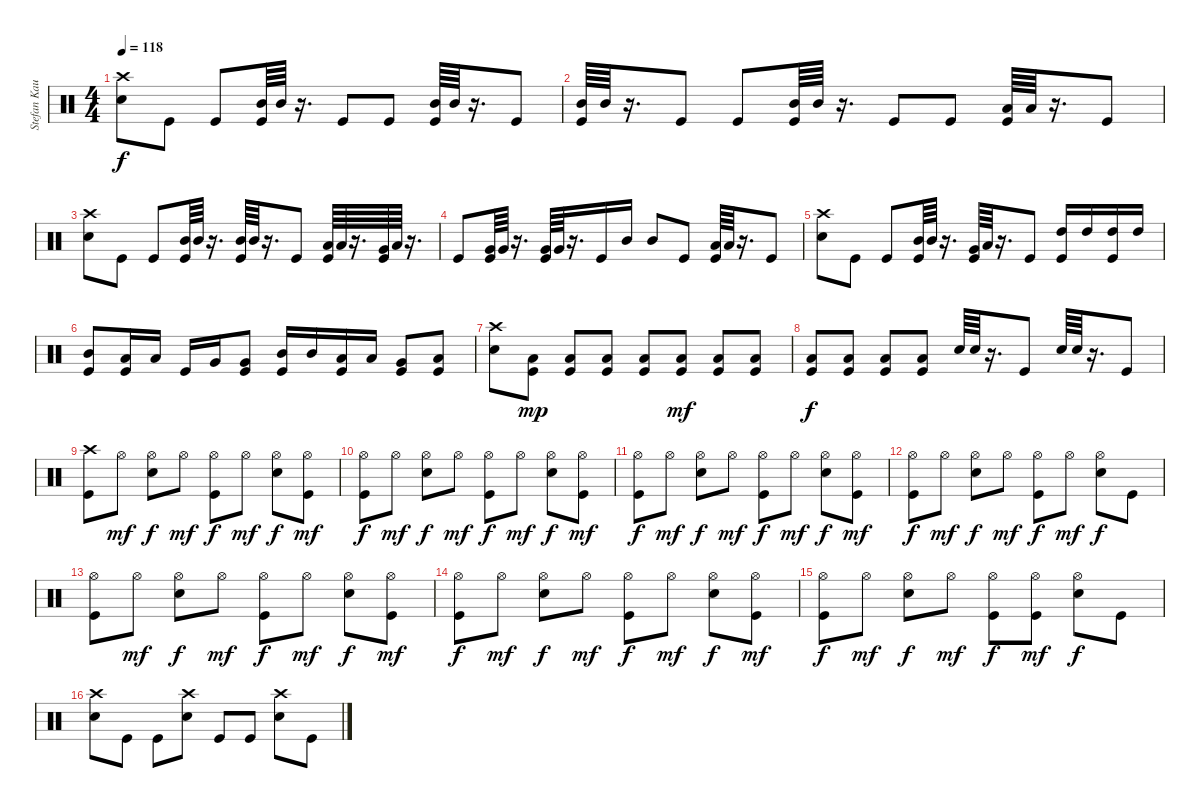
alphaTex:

\track ("Stefan Kaufmann" "Stefan Kau") {instrument percussion}
\staff {score}
\articulation defaults
\ts (4 4)
\tempo 118
\clef neutral
\ks c
("Crash high (hit)" "Snare (hit) 2").8{dy f} "Kick (hit)".8 "Kick (hit)".8 ("Mid Tom (hit)" "Kick (hit)").64 "Mid Tom (hit)".64 r.16{d} "Kick (hit)".8 "Kick (hit)".8 ("Mid Tom (hit)" "Kick (hit)").64 "Mid Tom (hit)".64 r.16{d} "Kick (hit)".8 |
("Mid Tom (hit)" "Kick (hit)").64 "Mid Tom (hit)".64 r.16{d} "Kick (hit)".8 "Kick (hit)".8 ("Mid Tom (hit)" "Kick (hit)").64 "Mid Tom (hit)".64 r.16{d} "Kick (hit)".8 "Kick (hit)".8 ("Low Tom (hit)" "Kick (hit)").64 "Low Tom (hit)".64 r.16{d} "Kick (hit)".8 |
("Crash high (hit)" "Snare (hit) 2").8 "Kick (hit)".8 "Kick (hit)".8 ("Mid Tom (hit)" "Kick (hit)").64 "Mid Tom (hit)".64 r.16{d} ("Mid Tom (hit)" "Kick (hit)").64 "Mid Tom (hit)".64 r.16{d} "Kick (hit)".8 ("Low Tom (hit)" "Kick (hit)").64 "Low Tom (hit)".64 r.16{d} ("Very Low Tom (hit)" "Kick (hit)").64 "Low Tom (hit)".64 r.16{d} |
"Kick (hit)".8 ("Very Low Tom (hit)" "Kick (hit)").64 "Very Low Tom (hit)".64 r.16{d} ("Very Low Tom (hit)" "Kick (hit)").64 "Very Low Tom (hit)".64 r.16{d} "Kick (hit)".16 "Mid Tom (hit)".16 "Mid Tom (hit)".8 "Kick (hit)".8 ("Low Tom (hit)" "Kick (hit)").64 "Low Tom (hit)".64 r.16{d} "Kick (hit)".8 |
("Crash high (hit)" "Snare (hit) 2").8 "Kick (hit)".8 "Kick (hit)".8 ("Mid Tom (hit)" "Kick (hit)").64 "Mid Tom (hit)".64 r.16{d} ("Very Low Tom (hit)" "Kick (hit)").64 "Low Tom (hit)".64 r.16{d} "Kick (hit)".8 ("High Tom (hit)" "Kick (hit)").16 "High Tom (hit)".16 ("High Tom (hit)" "Kick (hit)").16 "High Tom (hit)".16 |
("Mid Tom (hit)" "Kick (hit)").8 ("Low Tom (hit)" "Kick (hit)").16 "Low Tom (hit)".16 "Kick (hit)".16 "Very Low Tom (hit)".16 ("Very Low Tom (hit)" "Kick (hit)").8 ("Mid Tom (hit)" "Kick (hit)").16 "Mid Tom (hit)".16 ("Low Tom (hit)" "Kick (hit)").16 "Low Tom (hit)".16 ("Very Low Tom (hit)" "Kick (hit)").8 ("Low Floor Tom (hit)" "Kick (hit)").8 |
("Crash high (hit)" "Snare (hit) 2").8 ("Kick (hit)" "Low Floor Tom (hit)").8{dy mp} ("Kick (hit)" "Low Floor Tom (hit)").8 ("Kick (hit)" "Low Floor Tom (hit)").8 ("Kick (hit)" "Low Floor Tom (hit)").8 ("Kick (hit)" "Low Floor Tom (hit)").8{dy mf} ("Kick (hit)" "Low Floor Tom (hit)").8 ("Kick (hit)" "Low Floor Tom (hit)").8 |
("Kick (hit)" "Low Floor Tom (hit)").8{dy f} ("Kick (hit)" "Low Floor Tom (hit)").8 ("Kick (hit)" "Low Floor Tom (hit)").8 ("Kick (hit)" "Low Floor Tom (hit)").8 "Snare (hit) 2".64 "Snare (hit) 2".64 r.16{d} "Kick (hit)".8 "Snare (hit) 2".64 "Snare (hit) 2".64 r.16{d} "Kick (hit)".8 |
("Crash high (hit)" "Kick (hit)").8 "Hi-Hat (open)".8{dy mf} ("Hi-Hat (open)" "Snare (hit) 2").8{dy f} "Hi-Hat (open)".8{dy mf} ("Hi-Hat (open)" "Kick (hit)").8{dy f} "Hi-Hat (open)".8{dy mf} ("Hi-Hat (open)" "Snare (hit) 2").8{dy f} ("Hi-Hat (open)" "Kick (hit)").8{dy mf} |
("Hi-Hat (open)" "Kick (hit)").8{dy f} "Hi-Hat (open)".8{dy mf} ("Hi-Hat (open)" "Snare (hit) 2").8{dy f} "Hi-Hat (open)".8{dy mf} ("Hi-Hat (open)" "Kick (hit)").8{dy f} "Hi-Hat (open)".8{dy mf} ("Hi-Hat (open)" "Snare (hit) 2").8{dy f} ("Hi-Hat (open)" "Kick (hit)").8{dy mf} |
("Hi-Hat (open)" "Kick (hit)").8{dy f} "Hi-Hat (open)".8{dy mf} ("Hi-Hat (open)" "Snare (hit) 2").8{dy f} "Hi-Hat (open)".8{dy mf} ("Hi-Hat (open)" "Kick (hit)").8{dy f} "Hi-Hat (open)".8{dy mf} ("Hi-Hat (open)" "Snare (hit) 2").8{dy f} ("Hi-Hat (open)" "Kick (hit)").8{dy mf} |
("Hi-Hat (open)" "Kick (hit)").8{dy f} "Hi-Hat (open)".8{dy mf} ("Hi-Hat (open)" "Snare (hit) 2").8{dy f} "Hi-Hat (open)".8{dy mf} ("Hi-Hat (open)" "Kick (hit)").8{dy f} "Hi-Hat (open)".8{dy mf} ("Hi-Hat (open)" "Snare (hit) 2").8{dy f} "Kick (hit)".8 |
("Hi-Hat (open)" "Kick (hit)").8 "Hi-Hat (open)".8{dy mf} ("Hi-Hat (open)" "Snare (hit) 2").8{dy f} "Hi-Hat (open)".8{dy mf} ("Hi-Hat (open)" "Kick (hit)").8{dy f} "Hi-Hat (open)".8{dy mf} ("Hi-Hat (open)" "Snare (hit) 2").8{dy f} ("Hi-Hat (open)" "Kick (hit)").8{dy mf} |
("Hi-Hat (open)" "Kick (hit)").8{dy f} "Hi-Hat (open)".8{dy mf} ("Hi-Hat (open)" "Snare (hit) 2").8{dy f} "Hi-Hat (open)".8{dy mf} ("Hi-Hat (open)" "Kick (hit)").8{dy f} "Hi-Hat (open)".8{dy mf} ("Hi-Hat (open)" "Snare (hit) 2").8{dy f} ("Hi-Hat (open)" "Kick (hit)").8{dy mf} |
("Hi-Hat (open)" "Kick (hit)").8{dy f} "Hi-Hat (open)".8{dy mf} ("Hi-Hat (open)" "Snare (hit) 2").8{dy f} "Hi-Hat (open)".8{dy mf} ("Hi-Hat (open)" "Kick (hit)").8{dy f} ("Hi-Hat (open)" "Kick (hit)").8{dy mf} ("Hi-Hat (open)" "Snare (hit) 2").8{dy f} "Kick (hit)".8 |
("Crash high (hit)" "Snare (hit) 2").8 "Kick (hit)".8 "Kick (hit)".8 ("Crash high (hit)" "Snare (hit) 2").8 "Kick (hit)".8 "Kick (hit)".8 ("Crash high (hit)" "Snare (hit) 2").8 "Kick (hit)".8
